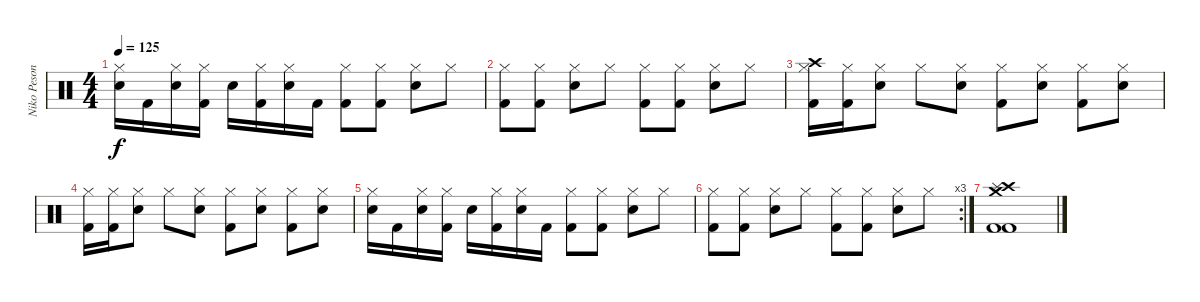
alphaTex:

\track ("Niko Pesonen" "Niko Peson") {instrument percussion}
\staff {score}
\articulation defaults
\ts (4 4)
\tempo 125
\clef neutral
\ks c
("Hi-Hat (closed)" "Snare (hit) 2").16{dy f} "Kick (hit) 2".16 ("Hi-Hat (closed)" "Snare (hit) 2").16 ("Hi-Hat (closed)" "Kick (hit) 2").16 "Snare (hit) 2".16 ("Hi-Hat (closed)" "Kick (hit) 2").16 ("Hi-Hat (closed)" "Snare (hit) 2").16 "Kick (hit) 2".16 ("Hi-Hat (closed)" "Kick (hit) 2").8 ("Hi-Hat (closed)" "Kick (hit) 2").8 ("Hi-Hat (closed)" "Snare (hit) 2").8 "Hi-Hat (closed)".8 |
("Hi-Hat (closed)" "Kick (hit) 2").8 ("Hi-Hat (closed)" "Kick (hit) 2").8 ("Hi-Hat (closed)" "Snare (hit) 2").8 "Hi-Hat (closed)".8 ("Hi-Hat (closed)" "Kick (hit) 2").8 ("Hi-Hat (closed)" "Kick (hit) 2").8 ("Hi-Hat (closed)" "Snare (hit) 2").8 "Hi-Hat (closed)".8 |
("Crash high (hit)" "Hi-Hat (closed)" "Kick (hit) 2").16 ("Hi-Hat (closed)" "Kick (hit) 2").16 ("Hi-Hat (closed)" "Snare (hit) 2").8 "Hi-Hat (closed)".8 ("Hi-Hat (closed)" "Snare (hit) 2").8 ("Hi-Hat (closed)" "Kick (hit) 2").8 ("Hi-Hat (closed)" "Snare (hit) 2").8 ("Hi-Hat (closed)" "Kick (hit) 2").8 ("Hi-Hat (closed)" "Snare (hit) 2").8 |
("Hi-Hat (closed)" "Kick (hit) 2").16 ("Hi-Hat (closed)" "Kick (hit) 2").16 ("Hi-Hat (closed)" "Snare (hit) 2").8 "Hi-Hat (closed)".8 ("Hi-Hat (closed)" "Snare (hit) 2").8 ("Hi-Hat (closed)" "Kick (hit) 2").8 ("Hi-Hat (closed)" "Snare (hit) 2").8 ("Hi-Hat (closed)" "Kick (hit) 2").8 ("Hi-Hat (closed)" "Snare (hit) 2").8 |
("Hi-Hat (closed)" "Snare (hit) 2").16 "Kick (hit) 2".16 ("Hi-Hat (closed)" "Snare (hit) 2").16 ("Hi-Hat (closed)" "Kick (hit) 2").16 "Snare (hit) 2".16 ("Hi-Hat (closed)" "Kick (hit) 2").16 ("Hi-Hat (closed)" "Snare (hit) 2").16 "Kick (hit) 2".16 ("Hi-Hat (closed)" "Kick (hit) 2").8 ("Hi-Hat (closed)" "Kick (hit) 2").8 ("Hi-Hat (closed)" "Snare (hit) 2").8 "Hi-Hat (closed)".8 |
\rc 3
("Hi-Hat (closed)" "Kick (hit) 2").8 ("Hi-Hat (closed)" "Kick (hit) 2").8 ("Hi-Hat (closed)" "Snare (hit) 2").8 "Hi-Hat (closed)".8 ("Hi-Hat (closed)" "Kick (hit) 2").8 ("Hi-Hat (closed)" "Kick (hit) 2").8 ("Hi-Hat (closed)" "Snare (hit) 2").8 "Hi-Hat (closed)".8 |
("Crash medium (hit)" "Crash high (hit)" "Splash (hit)" "Kick (hit) 2" "Kick (hit) 2").1
